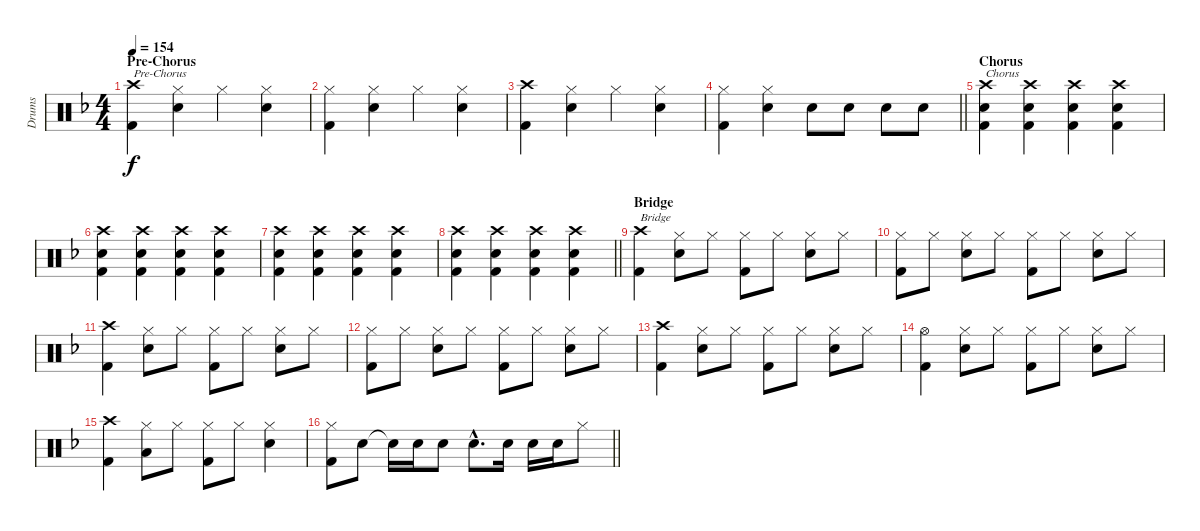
\track ("Drums" "Drums") {instrument percussion}
\staff {score}
\articulation defaults
\ts (4 4)
\section ("" "Pre-Chorus")
\tempo 154
\clef neutral
\ks f
("Crash high (hit)" "Kick (hit) 2").4{txt "Pre-Chorus" dy f} ("Hi-Hat (closed)" "Snare (hit) 2").4 "Hi-Hat (closed)".4 ("Hi-Hat (closed)" "Snare (hit) 2").4 |
("Hi-Hat (closed)" "Kick (hit) 2").4 ("Hi-Hat (closed)" "Snare (hit) 2").4 "Hi-Hat (closed)".4 ("Hi-Hat (closed)" "Snare (hit) 2").4 |
("Crash high (hit)" "Kick (hit) 2").4 ("Hi-Hat (closed)" "Snare (hit) 2").4 "Hi-Hat (closed)".4 ("Hi-Hat (closed)" "Snare (hit) 2").4 |
\barLineRight lightlight
("Hi-Hat (closed)" "Kick (hit) 2").4 ("Hi-Hat (closed)" "Snare (hit) 2").4 "Snare (hit) 2".8 "Snare (hit) 2".8 "Snare (hit) 2".8 "Snare (hit) 2".8 |
\section ("" "Chorus")
("Crash high (hit)" "Snare (hit) 2" "Kick (hit) 2").4{txt "Chorus"} ("Crash high (hit)" "Snare (hit) 2" "Kick (hit) 2").4 ("Crash high (hit)" "Snare (hit) 2" "Kick (hit) 2").4 ("Crash high (hit)" "Snare (hit) 2" "Kick (hit) 2").4 |
("Crash high (hit)" "Snare (hit) 2" "Kick (hit) 2").4 ("Crash high (hit)" "Snare (hit) 2" "Kick (hit) 2").4 ("Crash high (hit)" "Snare (hit) 2" "Kick (hit) 2").4 ("Crash high (hit)" "Snare (hit) 2" "Kick (hit) 2").4 |
("Crash high (hit)" "Snare (hit) 2" "Kick (hit) 2").4 ("Crash high (hit)" "Snare (hit) 2" "Kick (hit) 2").4 ("Crash high (hit)" "Snare (hit) 2" "Kick (hit) 2").4 ("Crash high (hit)" "Snare (hit) 2" "Kick (hit) 2").4 |
\barLineRight lightlight
("Crash high (hit)" "Snare (hit) 2" "Kick (hit) 2").4 ("Crash high (hit)" "Snare (hit) 2" "Kick (hit) 2").4 ("Crash high (hit)" "Snare (hit) 2" "Kick (hit) 2").4 ("Crash high (hit)" "Snare (hit) 2" "Kick (hit) 2").4 |
\section ("" "Bridge")
("Crash high (hit)" "Kick (hit) 2").4{txt "Bridge"} ("Hi-Hat (closed)" "Snare (hit) 2").8 "Hi-Hat (closed)".8 ("Hi-Hat (closed)" "Kick (hit) 2").8 "Hi-Hat (closed)".8 ("Hi-Hat (closed)" "Snare (hit) 2").8 "Hi-Hat (closed)".8 |
("Hi-Hat (closed)" "Kick (hit) 2").8 "Hi-Hat (closed)".8 ("Hi-Hat (closed)" "Snare (hit) 2").8 "Hi-Hat (closed)".8 ("Hi-Hat (closed)" "Kick (hit) 2").8 "Hi-Hat (closed)".8 ("Hi-Hat (closed)" "Snare (hit) 2").8 "Hi-Hat (closed)".8 |
("Crash high (hit)" "Kick (hit) 2").4 ("Hi-Hat (closed)" "Snare (hit) 2").8 "Hi-Hat (closed)".8 ("Hi-Hat (closed)" "Kick (hit) 2").8 "Hi-Hat (closed)".8 ("Hi-Hat (closed)" "Snare (hit) 2").8 "Hi-Hat (closed)".8 |
("Hi-Hat (closed)" "Kick (hit) 2").8 "Hi-Hat (closed)".8 ("Hi-Hat (closed)" "Snare (hit) 2").8 "Hi-Hat (closed)".8 ("Hi-Hat (closed)" "Kick (hit) 2").8 "Hi-Hat (closed)".8 ("Hi-Hat (closed)" "Snare (hit) 2").8 "Hi-Hat (closed)".8 |
("Crash high (hit)" "Kick (hit) 2").4 ("Hi-Hat (closed)" "Snare (hit) 2").8 "Hi-Hat (closed)".8 ("Hi-Hat (closed)" "Kick (hit) 2").8 "Hi-Hat (closed)".8 ("Hi-Hat (closed)" "Snare (hit) 2").8 "Hi-Hat (closed)".8 |
("Hi-Hat (open)" "Kick (hit) 2").4 ("Hi-Hat (closed)" "Snare (hit) 2").8 "Hi-Hat (closed)".8 ("Hi-Hat (closed)" "Kick (hit) 2").8 "Hi-Hat (closed)".8 ("Hi-Hat (closed)" "Snare (hit) 2").8 "Hi-Hat (closed)".8 |
("Crash high (hit)" "Kick (hit) 2").4 ("Hi-Hat (closed)" "Low Floor Tom (hit)").8 "Hi-Hat (closed)".8 ("Hi-Hat (closed)" "Kick (hit) 2").8 "Hi-Hat (closed)".8 ("Hi-Hat (closed)" "Snare (hit) 2").4 |
\barLineRight lightlight
("Hi-Hat (closed)" "Kick (hit) 2").8 "Snare (hit) 2".8 "Snare (hit)"{t}.16 "Snare (hit) 2".16 "Snare (hit) 2".8 "Snare (hit) 2"{hac}.8{d} "Snare (hit) 2".16 "Snare (hit) 2".16 "Snare (hit) 2".16 "Hi-Hat (closed)".8
